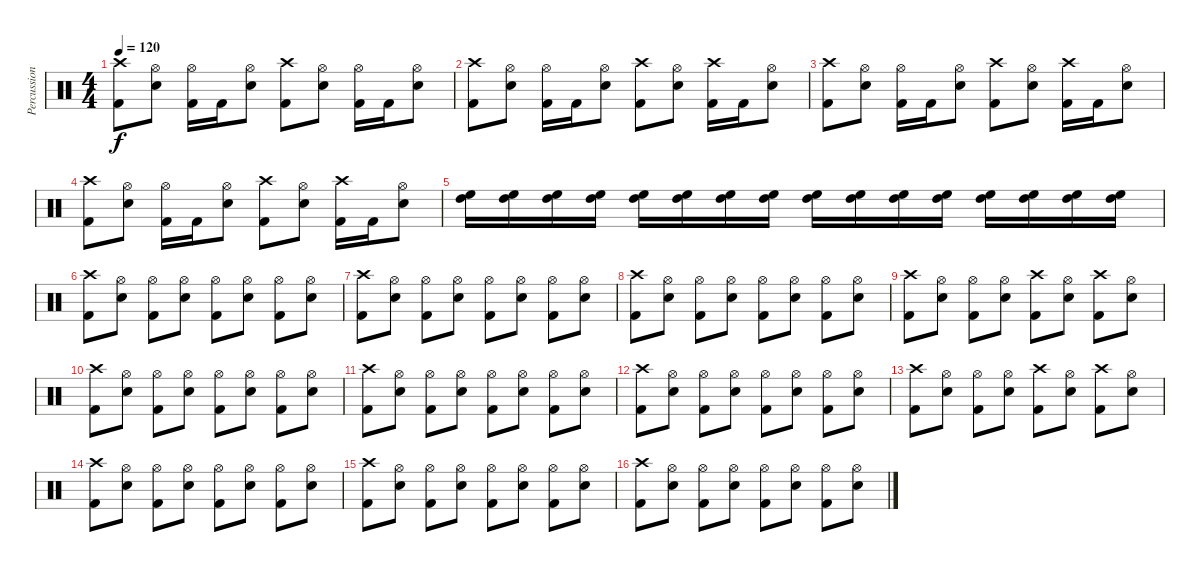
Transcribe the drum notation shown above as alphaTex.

\track ("Percussion" "Percussion") {instrument percussion}
\staff {score}
\articulation defaults
\ts (4 4)
\tempo 120
\clef neutral
\ks c
("Crash high (hit)" "Kick (hit) 2").8{dy f} ("Hi-Hat (open)" "Snare (hit) 2").8 ("Hi-Hat (open)" "Kick (hit) 2").16 "Kick (hit) 2".16 ("Hi-Hat (open)" "Snare (hit) 2").8 ("Crash high (hit)" "Kick (hit) 2").8 ("Hi-Hat (open)" "Snare (hit) 2").8 ("Hi-Hat (open)" "Kick (hit) 2").16 "Kick (hit) 2".16 ("Hi-Hat (open)" "Snare (hit) 2").8 |
("Crash high (hit)" "Kick (hit) 2").8 ("Hi-Hat (open)" "Snare (hit) 2").8 ("Hi-Hat (open)" "Kick (hit) 2").16 "Kick (hit) 2".16 ("Hi-Hat (open)" "Snare (hit) 2").8 ("Crash high (hit)" "Kick (hit) 2").8 ("Hi-Hat (open)" "Snare (hit) 2").8 ("Crash high (hit)" "Kick (hit) 2").16 "Kick (hit) 2".16 ("Hi-Hat (open)" "Snare (hit) 2").8 |
("Crash high (hit)" "Kick (hit) 2").8 ("Hi-Hat (open)" "Snare (hit) 2").8 ("Hi-Hat (open)" "Kick (hit) 2").16 "Kick (hit) 2".16 ("Hi-Hat (open)" "Snare (hit) 2").8 ("Crash high (hit)" "Kick (hit) 2").8 ("Hi-Hat (open)" "Snare (hit) 2").8 ("Crash high (hit)" "Kick (hit) 2").16 "Kick (hit) 2".16 ("Hi-Hat (open)" "Snare (hit) 2").8 |
("Crash high (hit)" "Kick (hit) 2").8 ("Hi-Hat (open)" "Snare (hit) 2").8 ("Hi-Hat (open)" "Kick (hit) 2").16 "Kick (hit) 2".16 ("Hi-Hat (open)" "Snare (hit) 2").8 ("Crash high (hit)" "Kick (hit) 2").8 ("Hi-Hat (open)" "Snare (hit) 2").8 ("Crash high (hit)" "Kick (hit) 2").16 "Kick (hit) 2".16 ("Hi-Hat (open)" "Snare (hit) 2").8 |
("High Tom (hit)" "High Floor Tom (hit)").16 ("High Tom (hit)" "High Floor Tom (hit)").16 ("High Tom (hit)" "High Floor Tom (hit)").16 ("High Tom (hit)" "High Floor Tom (hit)").16 ("High Tom (hit)" "High Floor Tom (hit)").16 ("High Tom (hit)" "High Floor Tom (hit)").16 ("High Tom (hit)" "High Floor Tom (hit)").16 ("High Tom (hit)" "High Floor Tom (hit)").16 ("High Tom (hit)" "High Floor Tom (hit)").16 ("High Tom (hit)" "High Floor Tom (hit)").16 ("High Tom (hit)" "High Floor Tom (hit)").16 ("High Tom (hit)" "High Floor Tom (hit)").16 ("High Tom (hit)" "High Floor Tom (hit)").16 ("High Tom (hit)" "High Floor Tom (hit)").16 ("High Tom (hit)" "High Floor Tom (hit)").16 ("High Tom (hit)" "High Floor Tom (hit)").16 |
("Crash high (hit)" "Kick (hit) 2").8 ("Hi-Hat (open)" "Snare (hit) 2").8 ("Hi-Hat (open)" "Kick (hit) 2").8 ("Hi-Hat (open)" "Snare (hit) 2").8 ("Hi-Hat (open)" "Kick (hit) 2").8 ("Hi-Hat (open)" "Snare (hit) 2").8 ("Hi-Hat (open)" "Kick (hit) 2").8 ("Hi-Hat (open)" "Snare (hit) 2").8 |
("Crash high (hit)" "Kick (hit) 2").8 ("Hi-Hat (open)" "Snare (hit) 2").8 ("Hi-Hat (open)" "Kick (hit) 2").8 ("Hi-Hat (open)" "Snare (hit) 2").8 ("Hi-Hat (open)" "Kick (hit) 2").8 ("Hi-Hat (open)" "Snare (hit) 2").8 ("Hi-Hat (open)" "Kick (hit) 2").8 ("Hi-Hat (open)" "Snare (hit) 2").8 |
("Crash high (hit)" "Kick (hit) 2").8 ("Hi-Hat (open)" "Snare (hit) 2").8 ("Hi-Hat (open)" "Kick (hit) 2").8 ("Hi-Hat (open)" "Snare (hit) 2").8 ("Hi-Hat (open)" "Kick (hit) 2").8 ("Hi-Hat (open)" "Snare (hit) 2").8 ("Hi-Hat (open)" "Kick (hit) 2").8 ("Hi-Hat (open)" "Snare (hit) 2").8 |
("Crash high (hit)" "Kick (hit) 2").8 ("Hi-Hat (open)" "Snare (hit) 2").8 ("Hi-Hat (open)" "Kick (hit) 2").8 ("Hi-Hat (open)" "Snare (hit) 2").8 ("Crash high (hit)" "Kick (hit) 2").8 ("Hi-Hat (open)" "Snare (hit) 2").8 ("Crash high (hit)" "Kick (hit) 2").8 ("Hi-Hat (open)" "Snare (hit) 2").8 |
("Crash high (hit)" "Kick (hit) 2").8 ("Hi-Hat (open)" "Snare (hit) 2").8 ("Hi-Hat (open)" "Kick (hit) 2").8 ("Hi-Hat (open)" "Snare (hit) 2").8 ("Hi-Hat (open)" "Kick (hit) 2").8 ("Hi-Hat (open)" "Snare (hit) 2").8 ("Hi-Hat (open)" "Kick (hit) 2").8 ("Hi-Hat (open)" "Snare (hit) 2").8 |
("Crash high (hit)" "Kick (hit) 2").8 ("Hi-Hat (open)" "Snare (hit) 2").8 ("Hi-Hat (open)" "Kick (hit) 2").8 ("Hi-Hat (open)" "Snare (hit) 2").8 ("Hi-Hat (open)" "Kick (hit) 2").8 ("Hi-Hat (open)" "Snare (hit) 2").8 ("Hi-Hat (open)" "Kick (hit) 2").8 ("Hi-Hat (open)" "Snare (hit) 2").8 |
("Crash high (hit)" "Kick (hit) 2").8 ("Hi-Hat (open)" "Snare (hit) 2").8 ("Hi-Hat (open)" "Kick (hit) 2").8 ("Hi-Hat (open)" "Snare (hit) 2").8 ("Hi-Hat (open)" "Kick (hit) 2").8 ("Hi-Hat (open)" "Snare (hit) 2").8 ("Hi-Hat (open)" "Kick (hit) 2").8 ("Hi-Hat (open)" "Snare (hit) 2").8 |
("Crash high (hit)" "Kick (hit) 2").8 ("Hi-Hat (open)" "Snare (hit) 2").8 ("Hi-Hat (open)" "Kick (hit) 2").8 ("Hi-Hat (open)" "Snare (hit) 2").8 ("Crash high (hit)" "Kick (hit) 2").8 ("Hi-Hat (open)" "Snare (hit) 2").8 ("Crash high (hit)" "Kick (hit) 2").8 ("Hi-Hat (open)" "Snare (hit) 2").8 |
("Crash high (hit)" "Kick (hit) 2").8 ("Hi-Hat (open)" "Snare (hit) 2").8 ("Hi-Hat (open)" "Kick (hit) 2").8 ("Hi-Hat (open)" "Snare (hit) 2").8 ("Hi-Hat (open)" "Kick (hit) 2").8 ("Hi-Hat (open)" "Snare (hit) 2").8 ("Hi-Hat (open)" "Kick (hit) 2").8 ("Hi-Hat (open)" "Snare (hit) 2").8 |
("Crash high (hit)" "Kick (hit) 2").8 ("Hi-Hat (open)" "Snare (hit) 2").8 ("Hi-Hat (open)" "Kick (hit) 2").8 ("Hi-Hat (open)" "Snare (hit) 2").8 ("Hi-Hat (open)" "Kick (hit) 2").8 ("Hi-Hat (open)" "Snare (hit) 2").8 ("Hi-Hat (open)" "Kick (hit) 2").8 ("Hi-Hat (open)" "Snare (hit) 2").8 |
("Crash high (hit)" "Kick (hit) 2").8 ("Hi-Hat (open)" "Snare (hit) 2").8 ("Hi-Hat (open)" "Kick (hit) 2").8 ("Hi-Hat (open)" "Snare (hit) 2").8 ("Hi-Hat (open)" "Kick (hit) 2").8 ("Hi-Hat (open)" "Snare (hit) 2").8 ("Hi-Hat (open)" "Kick (hit) 2").8 ("Hi-Hat (open)" "Snare (hit) 2").8
